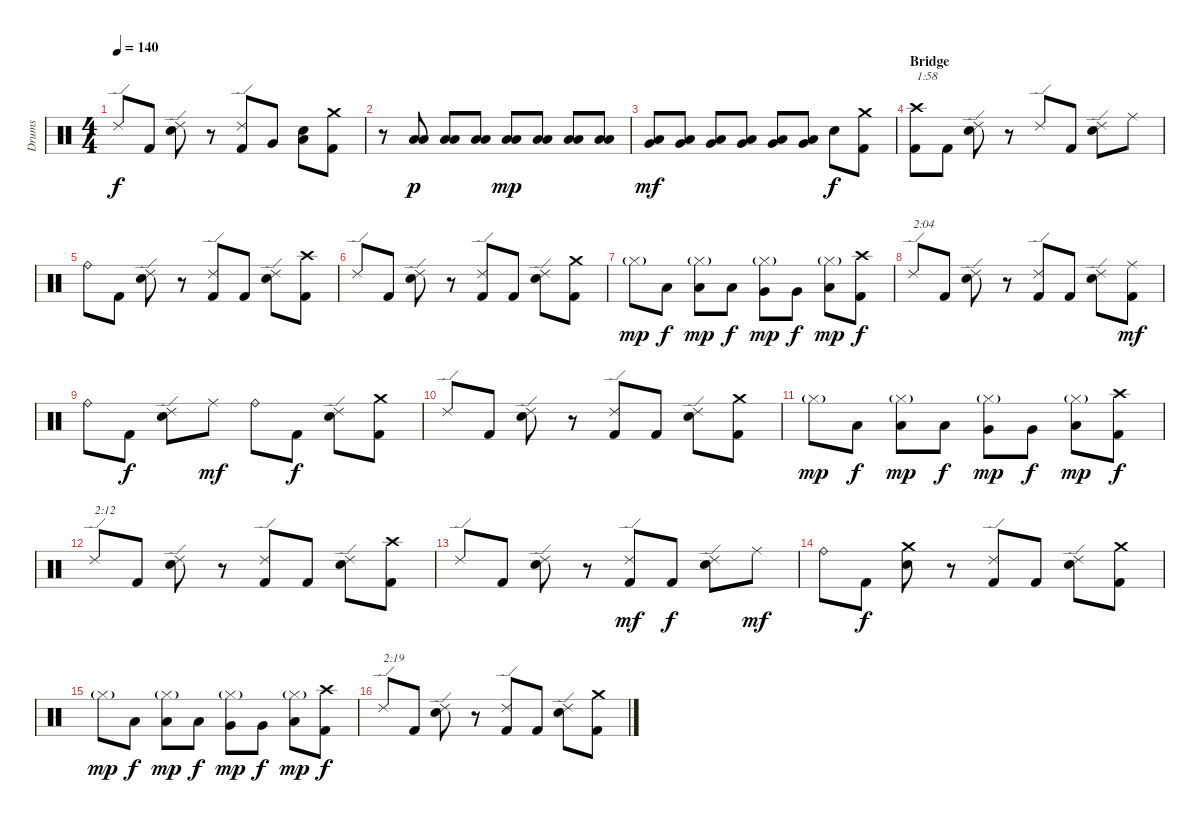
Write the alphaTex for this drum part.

\track ("Drums" "Drums") {instrument percussion}
\staff {score}
\articulation defaults
\ts (4 4)
\tempo 140
\clef neutral
\ks c "Ride (edge) 2".8{dy f} "Kick (hit) 2".8
("Ride (edge) 2" "Electric Snare (hit)").8 r.8 ("Ride (edge) 2" "Kick (hit) 2").8 "Very Low Tom (hit)".8 ("Low Floor Tom (hit)" "Electric Snare (hit)").8 ("Crash medium (hit)" "Kick (hit) 2").8 |
r.8 ("Low Floor Tom (hit)" "Low Tom (hit)").8{dy p} ("Low Floor Tom (hit)" "Low Tom (hit)").8 ("Low Floor Tom (hit)" "Low Tom (hit)").8 ("Low Floor Tom (hit)" "Low Tom (hit)").8{dy mp} ("Low Floor Tom (hit)" "Low Tom (hit)").8 ("Low Floor Tom (hit)" "Low Tom (hit)").8 ("Low Floor Tom (hit)" "Low Tom (hit)").8 |
("Low Floor Tom (hit)" "Very Low Tom (hit)").8{dy mf} ("Low Floor Tom (hit)" "Very Low Tom (hit)").8 ("Low Floor Tom (hit)" "Very Low Tom (hit)").8 ("Low Floor Tom (hit)" "Very Low Tom (hit)").8 ("Low Floor Tom (hit)" "Very Low Tom (hit)").8 ("Low Floor Tom (hit)" "Very Low Tom (hit)").8 "Electric Snare (hit)".8{dy f} ("Crash medium (hit)" "Kick (hit) 2").8 |
\section ("" "Bridge")
("Crash high (hit)" "Kick (hit) 2").8{txt "1:58"} "Kick (hit) 2".8 ("Ride (edge) 2" "Electric Snare (hit)").8 r.8 "Ride (edge) 2".8 "Kick (hit) 2".8 ("Ride (edge) 2" "Electric Snare (hit)").8 "Ride (middle)".8 |
"Ride (bell)".8 "Kick (hit) 2".8 ("Ride (edge) 2" "Electric Snare (hit)").8 r.8 ("Ride (edge) 2" "Kick (hit) 2").8 "Kick (hit) 2".8 ("Ride (edge) 2" "Electric Snare (hit)").8 ("Crash high (hit)" "Kick (hit) 2").8 |
"Ride (edge) 2".8 "Kick (hit) 2".8 ("Ride (edge) 2" "Electric Snare (hit)").8 r.8 ("Ride (edge) 2" "Kick (hit) 2").8 "Kick (hit) 2".8 ("Ride (edge) 2" "Electric Snare (hit)").8 ("Crash medium (hit)" "Kick (hit) 2").8 |
"Hi-Hat (closed)"{g}.8{dy mp} "Low Tom (hit)".8{dy f} ("Hi-Hat (closed)"{g} "Low Tom (hit)").8{dy mp} "Low Tom (hit)".8{dy f} ("Hi-Hat (closed)"{g} "Very Low Tom (hit)").8{dy mp} "Very Low Tom (hit)".8{dy f} ("Hi-Hat (closed)"{g} "Low Floor Tom (hit)").8{dy mp} ("Crash high (hit)" "Kick (hit) 2").8{dy f} |
"Ride (edge) 2".8{txt "2:04"} "Kick (hit) 2".8 ("Ride (edge) 2" "Electric Snare (hit)").8 r.8 ("Ride (edge) 2" "Kick (hit) 2").8 "Kick (hit) 2".8 ("Ride (edge) 2" "Electric Snare (hit)").8 ("Ride (middle)" "Kick (hit) 2").8{dy mf} |
"Ride (bell)".8 "Kick (hit) 2".8{dy f} ("Ride (edge) 2" "Electric Snare (hit)").8 "Ride (middle)".8{dy mf} "Ride (bell)".8 "Kick (hit) 2".8{dy f} ("Ride (edge) 2" "Electric Snare (hit)").8 ("Crash medium (hit)" "Kick (hit) 2").8 |
"Ride (edge) 2".8 "Kick (hit) 2".8 ("Ride (edge) 2" "Electric Snare (hit)").8 r.8 ("Ride (edge) 2" "Kick (hit) 2").8 "Kick (hit) 2".8 ("Ride (edge) 2" "Electric Snare (hit)").8 ("Crash medium (hit)" "Kick (hit) 2").8 |
"Hi-Hat (closed)"{g}.8{dy mp} "Low Tom (hit)".8{dy f} ("Hi-Hat (closed)"{g} "Low Tom (hit)").8{dy mp} "Low Tom (hit)".8{dy f} ("Hi-Hat (closed)"{g} "Very Low Tom (hit)").8{dy mp} "Very Low Tom (hit)".8{dy f} ("Hi-Hat (closed)"{g} "Low Floor Tom (hit)").8{dy mp} ("Crash high (hit)" "Kick (hit) 2").8{dy f} |
"Ride (edge) 2".8{txt "2:12"} "Kick (hit) 2".8 ("Ride (edge) 2" "Electric Snare (hit)").8 r.8 ("Ride (edge) 2" "Kick (hit) 2").8 "Kick (hit) 2".8 ("Ride (edge) 2" "Electric Snare (hit)").8 ("Crash high (hit)" "Kick (hit) 2").8 |
"Ride (edge) 2".8 "Kick (hit) 2".8 ("Ride (edge) 2" "Electric Snare (hit)").8 r.8 ("Ride (edge) 2" "Kick (hit) 2").8{dy mf} "Kick (hit) 2".8{dy f} ("Ride (edge) 2" "Electric Snare (hit)").8 "Ride (middle)".8{dy mf} |
"Ride (bell)".8 "Kick (hit) 2".8{dy f} ("Crash medium (hit)" "Electric Snare (hit)").8 r.8 ("Ride (edge) 2" "Kick (hit) 2").8 "Kick (hit) 2".8 ("Ride (edge) 2" "Electric Snare (hit)").8 ("Crash medium (hit)" "Kick (hit) 2").8 |
"Hi-Hat (closed)"{g}.8{dy mp} "Low Tom (hit)".8{dy f} ("Hi-Hat (closed)"{g} "Low Tom (hit)").8{dy mp} "Low Tom (hit)".8{dy f} ("Hi-Hat (closed)"{g} "Very Low Tom (hit)").8{dy mp} "Very Low Tom (hit)".8{dy f} ("Hi-Hat (closed)"{g} "Low Floor Tom (hit)").8{dy mp} ("Crash high (hit)" "Kick (hit) 2").8{dy f} |
"Ride (edge) 2".8{txt "2:19"} "Kick (hit) 2".8 ("Ride (edge) 2" "Electric Snare (hit)").8 r.8 ("Ride (edge) 2" "Kick (hit) 2").8 "Kick (hit) 2".8 ("Ride (edge) 2" "Electric Snare (hit)").8 ("Crash medium (hit)" "Kick (hit) 2").8
